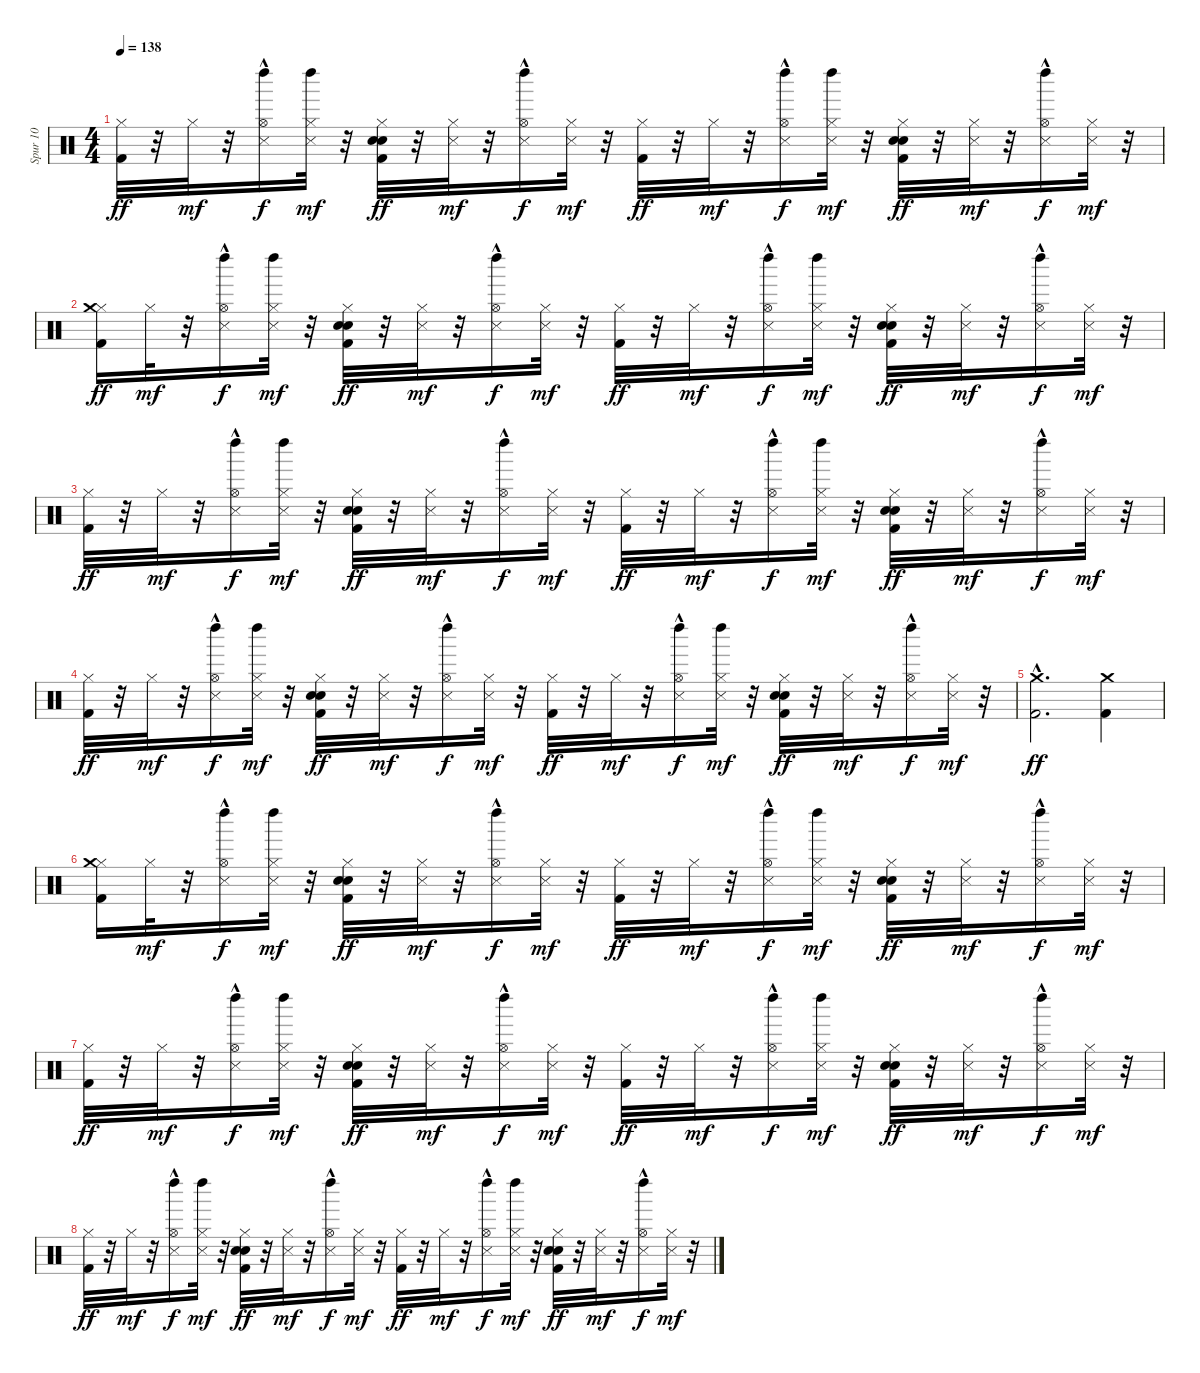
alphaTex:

\track ("Spur 10" "Spur 10") {instrument percussion}
\staff {score}
\articulation defaults
\ts (4 4)
\tempo 138
\clef neutral
\ks c
("Hi-Hat (closed)" "Kick (hit) 2").32{dy ff} r.32 "Hi-Hat (closed)".32{dy mf} r.32 ("Snare (side stick) 3" "Hi-Hat (open)"{hac} "Left Maraca (hit)").16{dy f} ("Hi-Hat (closed)" "Snare (side stick) 3" "Left Maraca (hit)").32{dy mf} r.32 ("Hand Clap (hit)" "Hi-Hat (closed)" "Kick (hit) 2" "Electric Snare (hit)").32{dy ff} r.32 ("Hi-Hat (closed)" "Snare (side stick) 3").32{dy mf} r.32 ("Snare (side stick) 3" "Hi-Hat (open)"{hac} "Left Maraca (hit)").16{dy f} ("Hi-Hat (closed)" "Snare (side stick) 3").32{dy mf} r.32 ("Hi-Hat (closed)" "Kick (hit) 2").32{dy ff} r.32 "Hi-Hat (closed)".32{dy mf} r.32 ("Snare (side stick) 3" "Hi-Hat (open)"{hac} "Left Maraca (hit)").16{dy f} ("Hi-Hat (closed)" "Snare (side stick) 3" "Left Maraca (hit)").32{dy mf} r.32 ("Hand Clap (hit)" "Hi-Hat (closed)" "Kick (hit) 2" "Electric Snare (hit)").32{dy ff} r.32 ("Hi-Hat (closed)" "Snare (side stick) 3").32{dy mf} r.32 ("Snare (side stick) 3" "Hi-Hat (open)"{hac} "Left Maraca (hit)").16{dy f} ("Hi-Hat (closed)" "Snare (side stick) 3").32{dy mf} r.32 |
("Hi-Hat (closed)" "Crash medium (hit)" "Kick (hit) 2").16{dy ff} "Hi-Hat (closed)".32{dy mf} r.32 ("Snare (side stick) 3" "Hi-Hat (open)"{hac} "Left Maraca (hit)").16{dy f} ("Hi-Hat (closed)" "Snare (side stick) 3" "Left Maraca (hit)").32{dy mf} r.32 ("Hand Clap (hit)" "Hi-Hat (closed)" "Kick (hit) 2" "Electric Snare (hit)").32{dy ff} r.32 ("Hi-Hat (closed)" "Snare (side stick) 3").32{dy mf} r.32 ("Snare (side stick) 3" "Hi-Hat (open)"{hac} "Left Maraca (hit)").16{dy f} ("Hi-Hat (closed)" "Snare (side stick) 3").32{dy mf} r.32 ("Hi-Hat (closed)" "Kick (hit) 2").32{dy ff} r.32 "Hi-Hat (closed)".32{dy mf} r.32 ("Snare (side stick) 3" "Hi-Hat (open)"{hac} "Left Maraca (hit)").16{dy f} ("Hi-Hat (closed)" "Snare (side stick) 3" "Left Maraca (hit)").32{dy mf} r.32 ("Hand Clap (hit)" "Hi-Hat (closed)" "Kick (hit) 2" "Electric Snare (hit)").32{dy ff} r.32 ("Hi-Hat (closed)" "Snare (side stick) 3").32{dy mf} r.32 ("Snare (side stick) 3" "Hi-Hat (open)"{hac} "Left Maraca (hit)").16{dy f} ("Hi-Hat (closed)" "Snare (side stick) 3").32{dy mf} r.32 |
("Hi-Hat (closed)" "Kick (hit) 2").32{dy ff} r.32 "Hi-Hat (closed)".32{dy mf} r.32 ("Snare (side stick) 3" "Hi-Hat (open)"{hac} "Left Maraca (hit)").16{dy f} ("Hi-Hat (closed)" "Snare (side stick) 3" "Left Maraca (hit)").32{dy mf} r.32 ("Hand Clap (hit)" "Hi-Hat (closed)" "Kick (hit) 2" "Electric Snare (hit)").32{dy ff} r.32 ("Hi-Hat (closed)" "Snare (side stick) 3").32{dy mf} r.32 ("Snare (side stick) 3" "Hi-Hat (open)"{hac} "Left Maraca (hit)").16{dy f} ("Hi-Hat (closed)" "Snare (side stick) 3").32{dy mf} r.32 ("Hi-Hat (closed)" "Kick (hit) 2").32{dy ff} r.32 "Hi-Hat (closed)".32{dy mf} r.32 ("Snare (side stick) 3" "Hi-Hat (open)"{hac} "Left Maraca (hit)").16{dy f} ("Hi-Hat (closed)" "Snare (side stick) 3" "Left Maraca (hit)").32{dy mf} r.32 ("Hand Clap (hit)" "Hi-Hat (closed)" "Kick (hit) 2" "Electric Snare (hit)").32{dy ff} r.32 ("Hi-Hat (closed)" "Snare (side stick) 3").32{dy mf} r.32 ("Snare (side stick) 3" "Hi-Hat (open)"{hac} "Left Maraca (hit)").16{dy f} ("Hi-Hat (closed)" "Snare (side stick) 3").32{dy mf} r.32 |
("Hi-Hat (closed)" "Kick (hit) 2").32{dy ff} r.32 "Hi-Hat (closed)".32{dy mf} r.32 ("Snare (side stick) 3" "Hi-Hat (open)"{hac} "Left Maraca (hit)").16{dy f} ("Hi-Hat (closed)" "Snare (side stick) 3" "Left Maraca (hit)").32{dy mf} r.32 ("Hand Clap (hit)" "Hi-Hat (closed)" "Kick (hit) 2" "Electric Snare (hit)").32{dy ff} r.32 ("Hi-Hat (closed)" "Snare (side stick) 3").32{dy mf} r.32 ("Snare (side stick) 3" "Hi-Hat (open)"{hac} "Left Maraca (hit)").16{dy f} ("Hi-Hat (closed)" "Snare (side stick) 3").32{dy mf} r.32 ("Hi-Hat (closed)" "Kick (hit) 2").32{dy ff} r.32 "Hi-Hat (closed)".32{dy mf} r.32 ("Snare (side stick) 3" "Hi-Hat (open)"{hac} "Left Maraca (hit)").16{dy f} ("Hi-Hat (closed)" "Snare (side stick) 3" "Left Maraca (hit)").32{dy mf} r.32 ("Hand Clap (hit)" "Hi-Hat (closed)" "Kick (hit) 2" "Electric Snare (hit)").32{dy ff} r.32 ("Hi-Hat (closed)" "Snare (side stick) 3").32{dy mf} r.32 ("Snare (side stick) 3" "Hi-Hat (open)"{hac} "Left Maraca (hit)").16{dy f} ("Hi-Hat (closed)" "Snare (side stick) 3").32{dy mf} r.32 |
("Crash medium (hit)"{hac} "Kick (hit) 2").2{d dy ff} ("Crash medium (hit)" "Kick (hit) 2").4 |
("Hi-Hat (closed)" "Crash medium (hit)" "Kick (hit) 2").16 "Hi-Hat (closed)".32{dy mf} r.32 ("Snare (side stick) 3" "Hi-Hat (open)"{hac} "Left Maraca (hit)").16{dy f} ("Hi-Hat (closed)" "Snare (side stick) 3" "Left Maraca (hit)").32{dy mf} r.32 ("Hand Clap (hit)" "Hi-Hat (closed)" "Kick (hit) 2" "Electric Snare (hit)").32{dy ff} r.32 ("Hi-Hat (closed)" "Snare (side stick) 3").32{dy mf} r.32 ("Snare (side stick) 3" "Hi-Hat (open)"{hac} "Left Maraca (hit)").16{dy f} ("Hi-Hat (closed)" "Snare (side stick) 3").32{dy mf} r.32 ("Hi-Hat (closed)" "Kick (hit) 2").32{dy ff} r.32 "Hi-Hat (closed)".32{dy mf} r.32 ("Snare (side stick) 3" "Hi-Hat (open)"{hac} "Left Maraca (hit)").16{dy f} ("Hi-Hat (closed)" "Snare (side stick) 3" "Left Maraca (hit)").32{dy mf} r.32 ("Hand Clap (hit)" "Hi-Hat (closed)" "Kick (hit) 2" "Electric Snare (hit)").32{dy ff} r.32 ("Hi-Hat (closed)" "Snare (side stick) 3").32{dy mf} r.32 ("Snare (side stick) 3" "Hi-Hat (open)"{hac} "Left Maraca (hit)").16{dy f} ("Hi-Hat (closed)" "Snare (side stick) 3").32{dy mf} r.32 |
("Hi-Hat (closed)" "Kick (hit) 2").32{dy ff} r.32 "Hi-Hat (closed)".32{dy mf} r.32 ("Snare (side stick) 3" "Hi-Hat (open)"{hac} "Left Maraca (hit)").16{dy f} ("Hi-Hat (closed)" "Snare (side stick) 3" "Left Maraca (hit)").32{dy mf} r.32 ("Hand Clap (hit)" "Hi-Hat (closed)" "Kick (hit) 2" "Electric Snare (hit)").32{dy ff} r.32 ("Hi-Hat (closed)" "Snare (side stick) 3").32{dy mf} r.32 ("Snare (side stick) 3" "Hi-Hat (open)"{hac} "Left Maraca (hit)").16{dy f} ("Hi-Hat (closed)" "Snare (side stick) 3").32{dy mf} r.32 ("Hi-Hat (closed)" "Kick (hit) 2").32{dy ff} r.32 "Hi-Hat (closed)".32{dy mf} r.32 ("Snare (side stick) 3" "Hi-Hat (open)"{hac} "Left Maraca (hit)").16{dy f} ("Hi-Hat (closed)" "Snare (side stick) 3" "Left Maraca (hit)").32{dy mf} r.32 ("Hand Clap (hit)" "Hi-Hat (closed)" "Kick (hit) 2" "Electric Snare (hit)").32{dy ff} r.32 ("Hi-Hat (closed)" "Snare (side stick) 3").32{dy mf} r.32 ("Snare (side stick) 3" "Hi-Hat (open)"{hac} "Left Maraca (hit)").16{dy f} ("Hi-Hat (closed)" "Snare (side stick) 3").32{dy mf} r.32 |
("Hi-Hat (closed)" "Kick (hit) 2").32{dy ff} r.32 "Hi-Hat (closed)".32{dy mf} r.32 ("Snare (side stick) 3" "Hi-Hat (open)"{hac} "Left Maraca (hit)").16{dy f} ("Hi-Hat (closed)" "Snare (side stick) 3" "Left Maraca (hit)").32{dy mf} r.32 ("Hand Clap (hit)" "Hi-Hat (closed)" "Kick (hit) 2" "Electric Snare (hit)").32{dy ff} r.32 ("Hi-Hat (closed)" "Snare (side stick) 3").32{dy mf} r.32 ("Snare (side stick) 3" "Hi-Hat (open)"{hac} "Left Maraca (hit)").16{dy f} ("Hi-Hat (closed)" "Snare (side stick) 3").32{dy mf} r.32 ("Hi-Hat (closed)" "Kick (hit) 2").32{dy ff} r.32 "Hi-Hat (closed)".32{dy mf} r.32 ("Snare (side stick) 3" "Hi-Hat (open)"{hac} "Left Maraca (hit)").16{dy f} ("Hi-Hat (closed)" "Snare (side stick) 3" "Left Maraca (hit)").32{dy mf} r.32 ("Hand Clap (hit)" "Hi-Hat (closed)" "Kick (hit) 2" "Electric Snare (hit)").32{dy ff} r.32 ("Hi-Hat (closed)" "Snare (side stick) 3").32{dy mf} r.32 ("Snare (side stick) 3" "Hi-Hat (open)"{hac} "Left Maraca (hit)").16{dy f} ("Hi-Hat (closed)" "Snare (side stick) 3").32{dy mf} r.32
